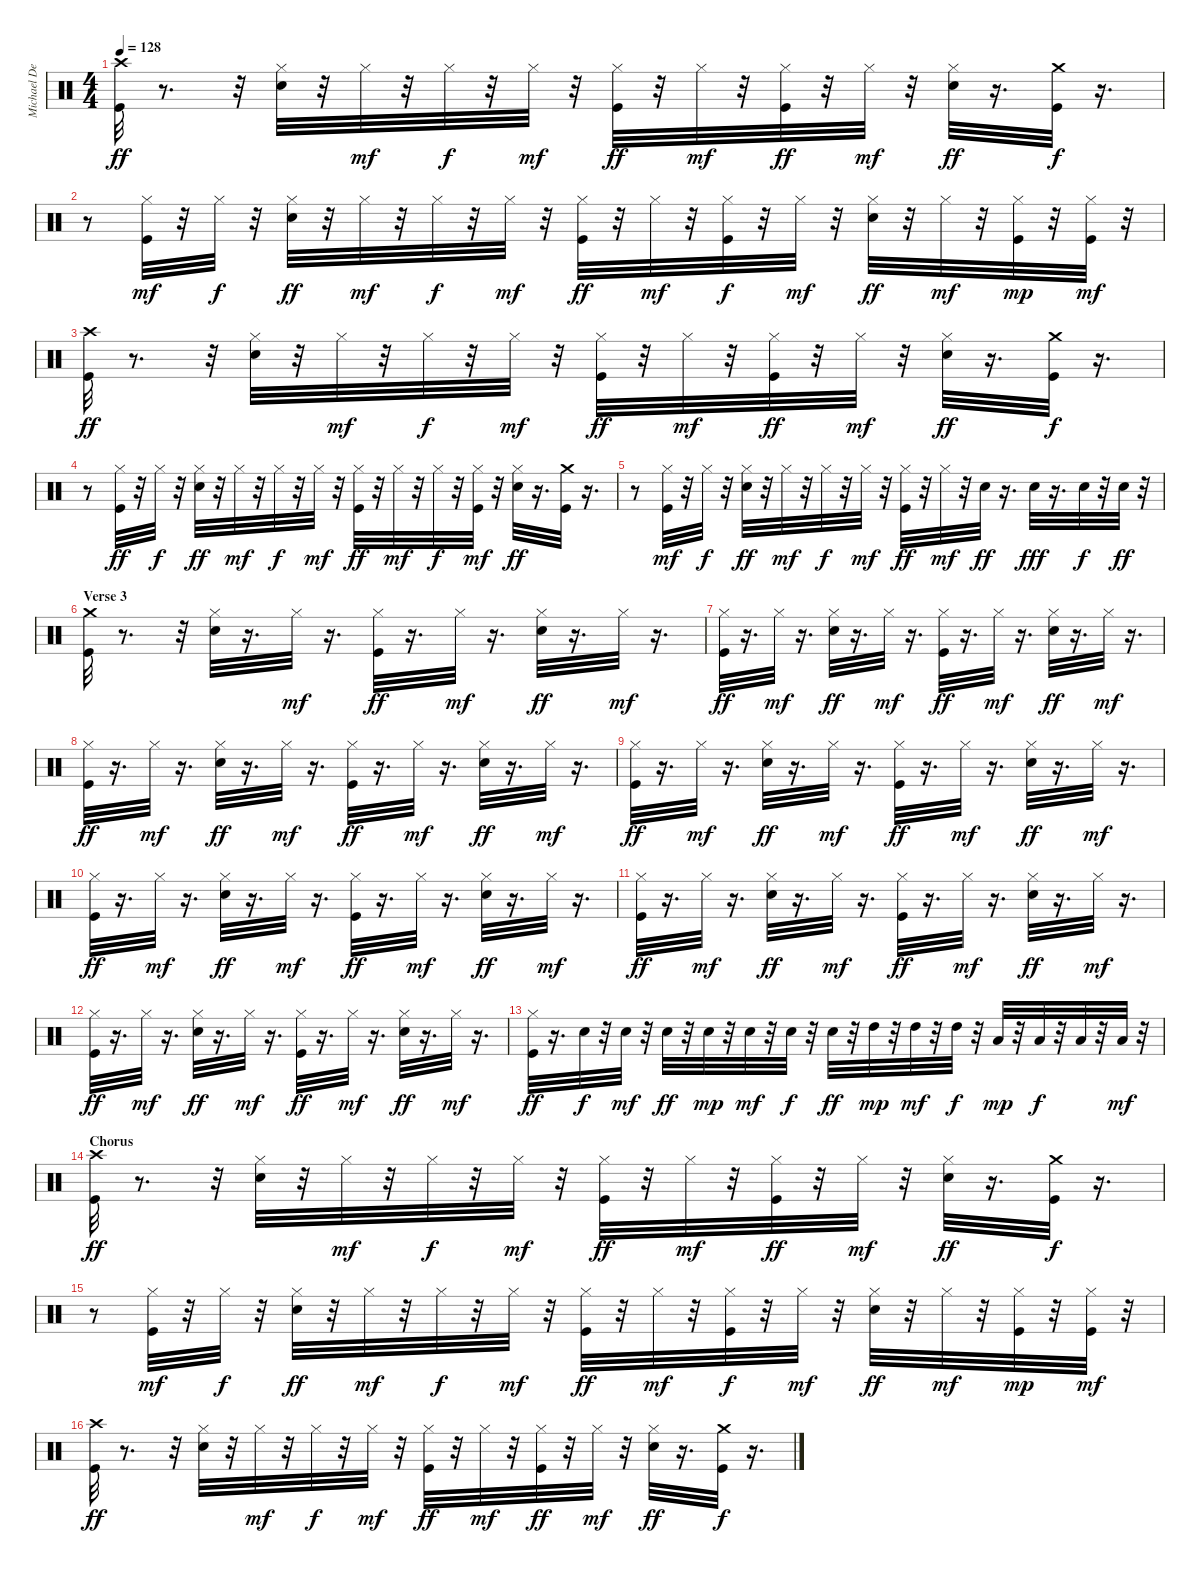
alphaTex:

\track ("Michael DeRosier" "Michael De") {instrument percussion}
\staff {score}
\articulation defaults
\ts (4 4)
\tempo 128
\clef neutral
\ks c
("Kick (hit)" "Crash high (hit)").32{dy ff} r.8{d} r.32 ("Snare (hit) 2" "Hi-Hat (closed)").32 r.32 "Hi-Hat (closed)".32{dy mf} r.32 "Hi-Hat (closed)".32{dy f} r.32 "Hi-Hat (closed)".32{dy mf} r.32 ("Hi-Hat (closed)" "Kick (hit)").32{dy ff} r.32 "Hi-Hat (closed)".32{dy mf} r.32 ("Hi-Hat (closed)" "Kick (hit)").32{dy ff} r.32 "Hi-Hat (closed)".32{dy mf} r.32 ("Snare (hit) 2" "Hi-Hat (closed)").32{dy ff} r.16{d} ("Kick (hit)" "Crash medium (hit)").32{dy f} r.16{d} |
r.8 ("Hi-Hat (closed)" "Kick (hit)").32{dy mf} r.32 "Hi-Hat (closed)".32{dy f} r.32 ("Snare (hit) 2" "Hi-Hat (closed)").32{dy ff} r.32 "Hi-Hat (closed)".32{dy mf} r.32 "Hi-Hat (closed)".32{dy f} r.32 "Hi-Hat (closed)".32{dy mf} r.32 ("Kick (hit)" "Hi-Hat (closed)").32{dy ff} r.32 "Hi-Hat (closed)".32{dy mf} r.32 ("Hi-Hat (closed)" "Kick (hit)").32{dy f} r.32 "Hi-Hat (closed)".32{dy mf} r.32 ("Snare (hit) 2" "Hi-Hat (closed)").32{dy ff} r.32 "Hi-Hat (closed)".32{dy mf} r.32 ("Hi-Hat (closed)" "Kick (hit)").32{dy mp} r.32 ("Hi-Hat (closed)" "Kick (hit)").32{dy mf} r.32 |
("Kick (hit)" "Crash high (hit)").32{dy ff} r.8{d} r.32 ("Snare (hit) 2" "Hi-Hat (closed)").32 r.32 "Hi-Hat (closed)".32{dy mf} r.32 "Hi-Hat (closed)".32{dy f} r.32 "Hi-Hat (closed)".32{dy mf} r.32 ("Hi-Hat (closed)" "Kick (hit)").32{dy ff} r.32 "Hi-Hat (closed)".32{dy mf} r.32 ("Kick (hit)" "Hi-Hat (closed)").32{dy ff} r.32 "Hi-Hat (closed)".32{dy mf} r.32 ("Snare (hit) 2" "Hi-Hat (closed)").32{dy ff} r.16{d} ("Kick (hit)" "Crash medium (hit)").32{dy f} r.16{d} |
r.8 ("Hi-Hat (closed)" "Kick (hit)").32{dy ff} r.32 "Hi-Hat (closed)".32{dy f} r.32 ("Snare (hit) 2" "Hi-Hat (closed)").32{dy ff} r.32 "Hi-Hat (closed)".32{dy mf} r.32 "Hi-Hat (closed)".32{dy f} r.32 "Hi-Hat (closed)".32{dy mf} r.32 ("Hi-Hat (closed)" "Kick (hit)").32{dy ff} r.32 "Hi-Hat (closed)".32{dy mf} r.32 "Hi-Hat (closed)".32{dy f} r.32 ("Hi-Hat (closed)" "Kick (hit)").32{dy mf} r.32 ("Snare (hit) 2" "Hi-Hat (closed)").32{dy ff} r.16{d} ("Kick (hit)" "Crash medium (hit)").32 r.16{d} |
r.8 ("Hi-Hat (closed)" "Kick (hit)").32{dy mf} r.32 "Hi-Hat (closed)".32{dy f} r.32 ("Snare (hit) 2" "Hi-Hat (closed)").32{dy ff} r.32 "Hi-Hat (closed)".32{dy mf} r.32 "Hi-Hat (closed)".32{dy f} r.32 "Hi-Hat (closed)".32{dy mf} r.32 ("Hi-Hat (closed)" "Kick (hit)").32{dy ff} r.32 "Hi-Hat (closed)".32{dy mf} r.32 "Snare (hit) 2".32{dy ff} r.16{d} "Snare (hit) 2".32{dy fff} r.16{d} "Snare (hit) 2".32{dy f} r.32 "Snare (hit) 2".32{dy ff} r.32 |
\section ("" "Verse 3")
("Kick (hit)" "Crash medium (hit)").32 r.8{d} r.32 ("Snare (hit) 2" "Hi-Hat (closed)").32 r.16{d} "Hi-Hat (closed)".32{dy mf} r.16{d} ("Hi-Hat (closed)" "Kick (hit)").32{dy ff} r.16{d} "Hi-Hat (closed)".32{dy mf} r.16{d} ("Snare (hit) 2" "Hi-Hat (closed)").32{dy ff} r.16{d} "Hi-Hat (closed)".32{dy mf} r.16{d} |
("Hi-Hat (closed)" "Kick (hit)").32{dy ff} r.16{d} "Hi-Hat (closed)".32{dy mf} r.16{d} ("Snare (hit) 2" "Hi-Hat (closed)").32{dy ff} r.16{d} "Hi-Hat (closed)".32{dy mf} r.16{d} ("Hi-Hat (closed)" "Kick (hit)").32{dy ff} r.16{d} "Hi-Hat (closed)".32{dy mf} r.16{d} ("Snare (hit) 2" "Hi-Hat (closed)").32{dy ff} r.16{d} "Hi-Hat (closed)".32{dy mf} r.16{d} |
("Hi-Hat (closed)" "Kick (hit)").32{dy ff} r.16{d} "Hi-Hat (closed)".32{dy mf} r.16{d} ("Snare (hit) 2" "Hi-Hat (closed)").32{dy ff} r.16{d} "Hi-Hat (closed)".32{dy mf} r.16{d} ("Hi-Hat (closed)" "Kick (hit)").32{dy ff} r.16{d} "Hi-Hat (closed)".32{dy mf} r.16{d} ("Snare (hit) 2" "Hi-Hat (closed)").32{dy ff} r.16{d} "Hi-Hat (closed)".32{dy mf} r.16{d} |
("Hi-Hat (closed)" "Kick (hit)").32{dy ff} r.16{d} "Hi-Hat (closed)".32{dy mf} r.16{d} ("Snare (hit) 2" "Hi-Hat (closed)").32{dy ff} r.16{d} "Hi-Hat (closed)".32{dy mf} r.16{d} ("Hi-Hat (closed)" "Kick (hit)").32{dy ff} r.16{d} "Hi-Hat (closed)".32{dy mf} r.16{d} ("Snare (hit) 2" "Hi-Hat (closed)").32{dy ff} r.16{d} "Hi-Hat (closed)".32{dy mf} r.16{d} |
("Hi-Hat (closed)" "Kick (hit)").32{dy ff} r.16{d} "Hi-Hat (closed)".32{dy mf} r.16{d} ("Snare (hit) 2" "Hi-Hat (closed)").32{dy ff} r.16{d} "Hi-Hat (closed)".32{dy mf} r.16{d} ("Hi-Hat (closed)" "Kick (hit)").32{dy ff} r.16{d} "Hi-Hat (closed)".32{dy mf} r.16{d} ("Snare (hit) 2" "Hi-Hat (closed)").32{dy ff} r.16{d} "Hi-Hat (closed)".32{dy mf} r.16{d} |
("Hi-Hat (closed)" "Kick (hit)").32{dy ff} r.16{d} "Hi-Hat (closed)".32{dy mf} r.16{d} ("Snare (hit) 2" "Hi-Hat (closed)").32{dy ff} r.16{d} "Hi-Hat (closed)".32{dy mf} r.16{d} ("Hi-Hat (closed)" "Kick (hit)").32{dy ff} r.16{d} "Hi-Hat (closed)".32{dy mf} r.16{d} ("Snare (hit) 2" "Hi-Hat (closed)").32{dy ff} r.16{d} "Hi-Hat (closed)".32{dy mf} r.16{d} |
("Hi-Hat (closed)" "Kick (hit)").32{dy ff} r.16{d} "Hi-Hat (closed)".32{dy mf} r.16{d} ("Snare (hit) 2" "Hi-Hat (closed)").32{dy ff} r.16{d} "Hi-Hat (closed)".32{dy mf} r.16{d} ("Hi-Hat (closed)" "Kick (hit)").32{dy ff} r.16{d} "Hi-Hat (closed)".32{dy mf} r.16{d} ("Snare (hit) 2" "Hi-Hat (closed)").32{dy ff} r.16{d} "Hi-Hat (closed)".32{dy mf} r.16{d} |
("Hi-Hat (closed)" "Kick (hit)").32{dy ff} r.16{d} "Snare (hit) 2".32{dy f} r.32 "Snare (hit) 2".32{dy mf} r.32 "Snare (hit) 2".32{dy ff} r.32 "Snare (hit) 2".32{dy mp} r.32 "Snare (hit) 2".32{dy mf} r.32 "Snare (hit) 2".32{dy f} r.32 "Snare (hit) 2".32{dy ff} r.32 "High Tom (hit)".32{dy mp} r.32 "High Tom (hit)".32{dy mf} r.32 "High Tom (hit)".32{dy f} r.32 "Low Tom (hit)".32{dy mp} r.32 "Low Tom (hit)".32{dy f} r.32 "Low Floor Tom (hit)".32 r.32 "Low Floor Tom (hit)".32{dy mf} r.32 |
\section ("" "Chorus")
("Kick (hit)" "Crash high (hit)").32{dy ff} r.8{d} r.32 ("Snare (hit) 2" "Hi-Hat (closed)").32 r.32 "Hi-Hat (closed)".32{dy mf} r.32 "Hi-Hat (closed)".32{dy f} r.32 "Hi-Hat (closed)".32{dy mf} r.32 ("Hi-Hat (closed)" "Kick (hit)").32{dy ff} r.32 "Hi-Hat (closed)".32{dy mf} r.32 ("Hi-Hat (closed)" "Kick (hit)").32{dy ff} r.32 "Hi-Hat (closed)".32{dy mf} r.32 ("Snare (hit) 2" "Hi-Hat (closed)").32{dy ff} r.16{d} ("Kick (hit)" "Crash medium (hit)").32{dy f} r.16{d} |
r.8 ("Hi-Hat (closed)" "Kick (hit)").32{dy mf} r.32 "Hi-Hat (closed)".32{dy f} r.32 ("Snare (hit) 2" "Hi-Hat (closed)").32{dy ff} r.32 "Hi-Hat (closed)".32{dy mf} r.32 "Hi-Hat (closed)".32{dy f} r.32 "Hi-Hat (closed)".32{dy mf} r.32 ("Hi-Hat (closed)" "Kick (hit)").32{dy ff} r.32 "Hi-Hat (closed)".32{dy mf} r.32 ("Hi-Hat (closed)" "Kick (hit)").32{dy f} r.32 "Hi-Hat (closed)".32{dy mf} r.32 ("Snare (hit) 2" "Hi-Hat (closed)").32{dy ff} r.32 "Hi-Hat (closed)".32{dy mf} r.32 ("Hi-Hat (closed)" "Kick (hit)").32{dy mp} r.32 ("Kick (hit)" "Hi-Hat (closed)").32{dy mf} r.32 |
("Kick (hit)" "Crash high (hit)").32{dy ff} r.8{d} r.32 ("Snare (hit) 2" "Hi-Hat (closed)").32 r.32 "Hi-Hat (closed)".32{dy mf} r.32 "Hi-Hat (closed)".32{dy f} r.32 "Hi-Hat (closed)".32{dy mf} r.32 ("Hi-Hat (closed)" "Kick (hit)").32{dy ff} r.32 "Hi-Hat (closed)".32{dy mf} r.32 ("Hi-Hat (closed)" "Kick (hit)").32{dy ff} r.32 "Hi-Hat (closed)".32{dy mf} r.32 ("Snare (hit) 2" "Hi-Hat (closed)").32{dy ff} r.16{d} ("Kick (hit)" "Crash medium (hit)").32{dy f} r.16{d}
